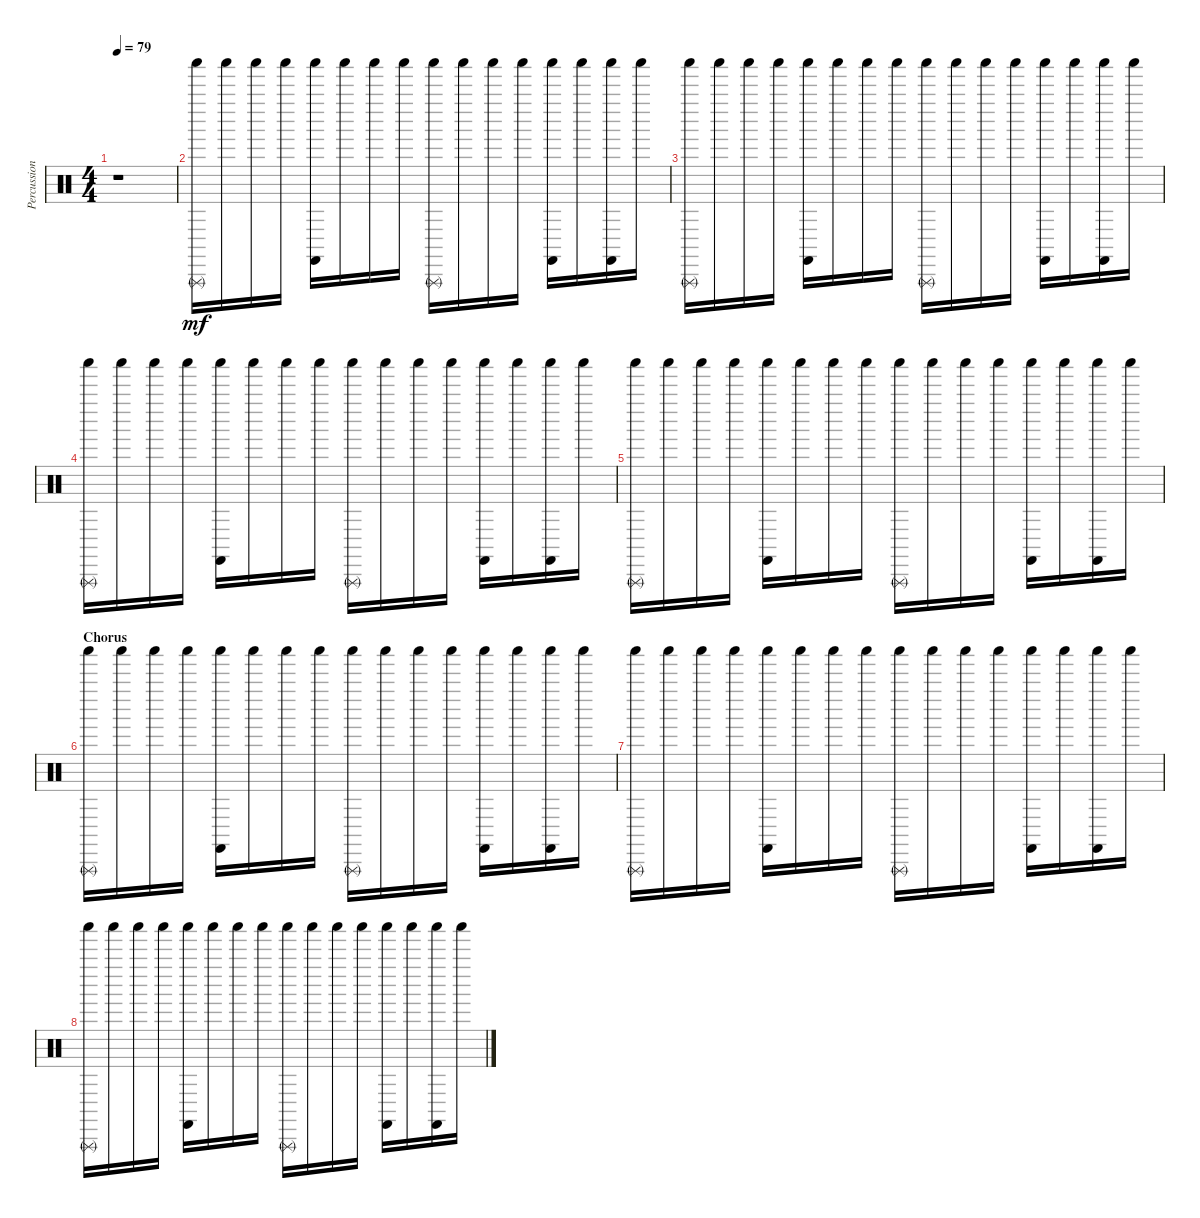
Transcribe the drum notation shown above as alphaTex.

\track ("Percussion" "Percussion") {instrument percussion}
\staff {score}
\articulation defaults
\ts (4 4)
\tempo 79
\clef neutral
\ks c
r.1{dy mf} |
("Shaker (hit)" "Triangle (rnute)").16{volume 0} "Shaker (hit)".16{volume 13} "Shaker (hit)".16 "Shaker (hit)".16 ("Shaker (hit)" "Castanets (hit)").16 "Shaker (hit)".16 "Shaker (hit)".16 "Shaker (hit)".16 ("Shaker (hit)" "Triangle (rnute)").16 "Shaker (hit)".16 "Shaker (hit)".16 "Shaker (hit)".16 ("Shaker (hit)" "Castanets (hit)").16 "Shaker (hit)".16 ("Shaker (hit)" "Castanets (hit)").16 "Shaker (hit)".16 |
("Shaker (hit)" "Triangle (rnute)").16 "Shaker (hit)".16 "Shaker (hit)".16 "Shaker (hit)".16 ("Shaker (hit)" "Castanets (hit)").16 "Shaker (hit)".16 "Shaker (hit)".16 "Shaker (hit)".16 ("Shaker (hit)" "Triangle (rnute)").16 "Shaker (hit)".16 "Shaker (hit)".16 "Shaker (hit)".16 ("Shaker (hit)" "Castanets (hit)").16 "Shaker (hit)".16 ("Shaker (hit)" "Castanets (hit)").16 "Shaker (hit)".16 |
("Shaker (hit)" "Triangle (rnute)").16 "Shaker (hit)".16 "Shaker (hit)".16 "Shaker (hit)".16 ("Shaker (hit)" "Castanets (hit)").16 "Shaker (hit)".16 "Shaker (hit)".16 "Shaker (hit)".16 ("Shaker (hit)" "Triangle (rnute)").16 "Shaker (hit)".16 "Shaker (hit)".16 "Shaker (hit)".16 ("Shaker (hit)" "Castanets (hit)").16 "Shaker (hit)".16 ("Shaker (hit)" "Castanets (hit)").16 "Shaker (hit)".16 |
("Shaker (hit)" "Triangle (rnute)").16 "Shaker (hit)".16 "Shaker (hit)".16 "Shaker (hit)".16 ("Shaker (hit)" "Castanets (hit)").16 "Shaker (hit)".16 "Shaker (hit)".16 "Shaker (hit)".16 ("Shaker (hit)" "Triangle (rnute)").16 "Shaker (hit)".16 "Shaker (hit)".16 "Shaker (hit)".16 ("Shaker (hit)" "Castanets (hit)").16 "Shaker (hit)".16 ("Shaker (hit)" "Castanets (hit)").16 "Shaker (hit)".16 |
\section ("" "Chorus")
("Shaker (hit)" "Triangle (rnute)").16 "Shaker (hit)".16 "Shaker (hit)".16 "Shaker (hit)".16 ("Shaker (hit)" "Castanets (hit)").16 "Shaker (hit)".16 "Shaker (hit)".16 "Shaker (hit)".16 ("Shaker (hit)" "Triangle (rnute)").16 "Shaker (hit)".16 "Shaker (hit)".16 "Shaker (hit)".16 ("Shaker (hit)" "Castanets (hit)").16 "Shaker (hit)".16 ("Shaker (hit)" "Castanets (hit)").16 "Shaker (hit)".16 |
("Shaker (hit)" "Triangle (rnute)").16 "Shaker (hit)".16 "Shaker (hit)".16 "Shaker (hit)".16 ("Shaker (hit)" "Castanets (hit)").16 "Shaker (hit)".16 "Shaker (hit)".16 "Shaker (hit)".16 ("Shaker (hit)" "Triangle (rnute)").16 "Shaker (hit)".16 "Shaker (hit)".16 "Shaker (hit)".16 ("Shaker (hit)" "Castanets (hit)").16 "Shaker (hit)".16 ("Shaker (hit)" "Castanets (hit)").16 "Shaker (hit)".16 |
("Shaker (hit)" "Triangle (rnute)").16 "Shaker (hit)".16 "Shaker (hit)".16 "Shaker (hit)".16 ("Shaker (hit)" "Castanets (hit)").16 "Shaker (hit)".16 "Shaker (hit)".16 "Shaker (hit)".16 ("Shaker (hit)" "Triangle (rnute)").16 "Shaker (hit)".16 "Shaker (hit)".16 "Shaker (hit)".16 ("Shaker (hit)" "Castanets (hit)").16 "Shaker (hit)".16 ("Shaker (hit)" "Castanets (hit)").16 "Shaker (hit)".16
